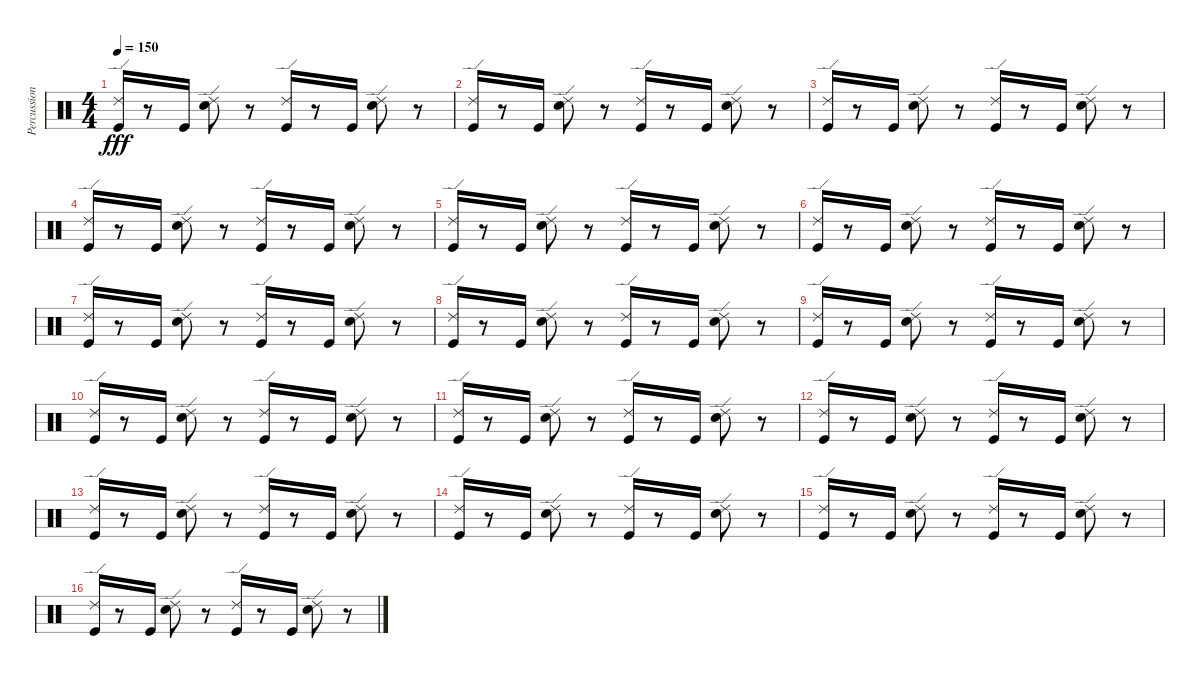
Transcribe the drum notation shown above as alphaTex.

\track ("Percussion" "Percussion") {instrument percussion}
\staff {score}
\articulation defaults
\ts (4 4)
\tempo 150
\clef neutral
\ks c
("Kick (hit)" "Ride (edge) 2").16{dy fff} r.8 "Kick (hit)".16 ("Electric Snare (hit)" "Ride (edge) 2").8 r.8 ("Kick (hit)" "Ride (edge) 2").16 r.8 "Kick (hit)".16 ("Electric Snare (hit)" "Ride (edge) 2").8 r.8 |
("Kick (hit)" "Ride (edge) 2").16 r.8 "Kick (hit)".16 ("Electric Snare (hit)" "Ride (edge) 2").8 r.8 ("Kick (hit)" "Ride (edge) 2").16 r.8 "Kick (hit)".16 ("Electric Snare (hit)" "Ride (edge) 2").8 r.8 |
("Kick (hit)" "Ride (edge) 2").16 r.8 "Kick (hit)".16 ("Electric Snare (hit)" "Ride (edge) 2").8 r.8 ("Kick (hit)" "Ride (edge) 2").16 r.8 "Kick (hit)".16 ("Electric Snare (hit)" "Ride (edge) 2").8 r.8 |
("Kick (hit)" "Ride (edge) 2").16 r.8 "Kick (hit)".16 ("Electric Snare (hit)" "Ride (edge) 2").8 r.8 ("Kick (hit)" "Ride (edge) 2").16 r.8 "Kick (hit)".16 ("Electric Snare (hit)" "Ride (edge) 2").8 r.8 |
("Kick (hit)" "Ride (edge) 2").16 r.8 "Kick (hit)".16 ("Electric Snare (hit)" "Ride (edge) 2").8 r.8 ("Kick (hit)" "Ride (edge) 2").16 r.8 "Kick (hit)".16 ("Electric Snare (hit)" "Ride (edge) 2").8 r.8 |
("Kick (hit)" "Ride (edge) 2").16 r.8 "Kick (hit)".16 ("Electric Snare (hit)" "Ride (edge) 2").8 r.8 ("Kick (hit)" "Ride (edge) 2").16 r.8 "Kick (hit)".16 ("Electric Snare (hit)" "Ride (edge) 2").8 r.8 |
("Kick (hit)" "Ride (edge) 2").16 r.8 "Kick (hit)".16 ("Electric Snare (hit)" "Ride (edge) 2").8 r.8 ("Kick (hit)" "Ride (edge) 2").16 r.8 "Kick (hit)".16 ("Electric Snare (hit)" "Ride (edge) 2").8 r.8 |
("Kick (hit)" "Ride (edge) 2").16 r.8 "Kick (hit)".16 ("Electric Snare (hit)" "Ride (edge) 2").8 r.8 ("Kick (hit)" "Ride (edge) 2").16 r.8 "Kick (hit)".16 ("Electric Snare (hit)" "Ride (edge) 2").8 r.8 |
("Kick (hit)" "Ride (edge) 2").16 r.8 "Kick (hit)".16 ("Electric Snare (hit)" "Ride (edge) 2").8 r.8 ("Kick (hit)" "Ride (edge) 2").16 r.8 "Kick (hit)".16 ("Electric Snare (hit)" "Ride (edge) 2").8 r.8 |
("Kick (hit)" "Ride (edge) 2").16 r.8 "Kick (hit)".16 ("Electric Snare (hit)" "Ride (edge) 2").8 r.8 ("Kick (hit)" "Ride (edge) 2").16 r.8 "Kick (hit)".16 ("Electric Snare (hit)" "Ride (edge) 2").8 r.8 |
("Kick (hit)" "Ride (edge) 2").16 r.8 "Kick (hit)".16 ("Electric Snare (hit)" "Ride (edge) 2").8 r.8 ("Kick (hit)" "Ride (edge) 2").16 r.8 "Kick (hit)".16 ("Electric Snare (hit)" "Ride (edge) 2").8 r.8 |
("Kick (hit)" "Ride (edge) 2").16 r.8 "Kick (hit)".16 ("Electric Snare (hit)" "Ride (edge) 2").8 r.8 ("Kick (hit)" "Ride (edge) 2").16 r.8 "Kick (hit)".16 ("Electric Snare (hit)" "Ride (edge) 2").8 r.8 |
("Kick (hit)" "Ride (edge) 2").16 r.8 "Kick (hit)".16 ("Electric Snare (hit)" "Ride (edge) 2").8 r.8 ("Kick (hit)" "Ride (edge) 2").16 r.8 "Kick (hit)".16 ("Electric Snare (hit)" "Ride (edge) 2").8 r.8 |
("Kick (hit)" "Ride (edge) 2").16 r.8 "Kick (hit)".16 ("Electric Snare (hit)" "Ride (edge) 2").8 r.8 ("Kick (hit)" "Ride (edge) 2").16 r.8 "Kick (hit)".16 ("Electric Snare (hit)" "Ride (edge) 2").8 r.8 |
("Kick (hit)" "Ride (edge) 2").16 r.8 "Kick (hit)".16 ("Electric Snare (hit)" "Ride (edge) 2").8 r.8 ("Kick (hit)" "Ride (edge) 2").16 r.8 "Kick (hit)".16 ("Electric Snare (hit)" "Ride (edge) 2").8 r.8 |
("Kick (hit)" "Ride (edge) 2").16 r.8 "Kick (hit)".16 ("Electric Snare (hit)" "Ride (edge) 2").8 r.8 ("Kick (hit)" "Ride (edge) 2").16 r.8 "Kick (hit)".16 ("Electric Snare (hit)" "Ride (edge) 2").8 r.8
